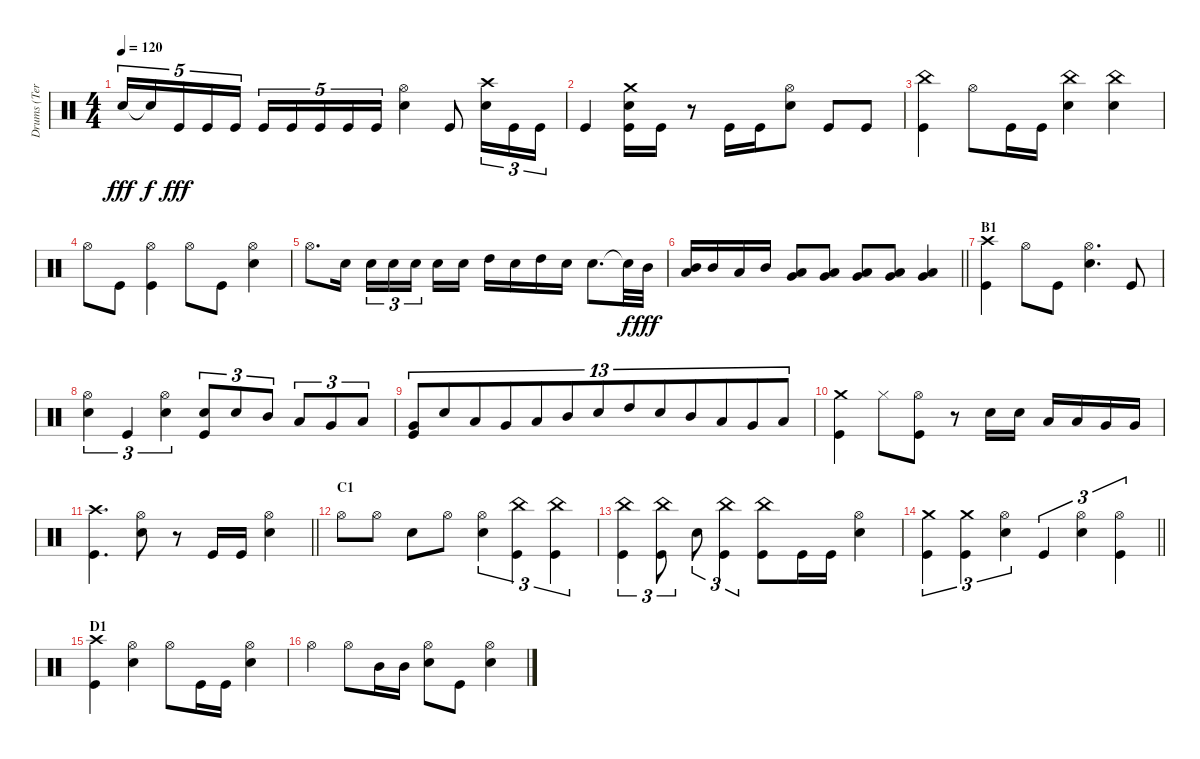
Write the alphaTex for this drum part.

\track ("Drums (Terry Bozzio)" "Drums (Ter") {instrument percussion}
\staff {score}
\articulation defaults
\ts (4 4)
\tempo 120
\clef neutral
\ks c "Snare (hit) 2".16{tu (5 4) dy fff} "Snare (hit)"{t}.16{tu (5 4) dy f} "Kick (hit)".16{tu (5 4) dy fff} "Kick (hit)".16{tu (5 4)} "Kick (hit)".16{tu (5 4)} "Kick (hit)".16{tu (5 4)} "Kick (hit)".16{tu (5 4)} "Kick (hit)".16{tu (5 4)} "Kick (hit)".16{tu (5 4)} "Kick (hit)".16{tu (5 4)}
("Hi-Hat (open)" "Snare (hit) 2").4 "Kick (hit)".8 ("Crash high (hit)" "Snare (hit) 2").16{tu (3 2)} "Kick (hit)".16{tu (3 2)} "Kick (hit)".16{tu (3 2)} |
"Kick (hit)".4 ("Crash medium (hit)" "Snare (hit) 2" "Kick (hit)").16 "Kick (hit)".16 r.8 "Kick (hit)".16 "Kick (hit)".16 ("Hi-Hat (open)" "Snare (hit) 2").8 "Kick (hit)".8 "Kick (hit)".8 |
("China (hit)" "Kick (hit)").4 "Hi-Hat (open)".8 "Kick (hit)".16 "Kick (hit)".16 ("China (hit)" "Snare (hit) 2").4 ("China (hit)" "Snare (hit) 2").4 |
"Hi-Hat (open)".8 "Kick (hit)".8 ("Hi-Hat (open)" "Kick (hit)").4 "Hi-Hat (open)".8 "Kick (hit)".8 ("Hi-Hat (open)" "Snare (hit) 2").4 |
"Hi-Hat (open)".8{d} "Snare (hit) 2".16 "Snare (hit) 2".16{tu (3 2)} "Snare (hit) 2".16{tu (3 2)} "Snare (hit) 2".16{tu (3 2)} "Snare (hit) 2".16 "Snare (hit) 2".16 "High Tom (hit)".16 "Snare (hit) 2".16 "High Tom (hit)".16 "Snare (hit) 2".16 "Snare (hit) 2".8{d} "Snare (hit)"{t}.32{dy f} "Mid Tom (hit)".32{dy fff} |
\barLineRight lightlight
("Mid Tom (hit)" "Low Tom (hit)").16 "Mid Tom (hit)".16 "Low Tom (hit)".16 "Mid Tom (hit)".16 ("Low Tom (hit)" "Very Low Tom (hit)").8 ("Low Tom (hit)" "Very Low Tom (hit)").8 ("Very Low Tom (hit)" "Low Floor Tom (hit)").8 ("Very Low Tom (hit)" "Low Floor Tom (hit)").8 ("Very Low Tom (hit)" "Low Floor Tom (hit)").4 |
\section ("" "B1")
("Crash high (hit)" "Kick (hit)").4 "Hi-Hat (open)".8 "Kick (hit)".8 ("Hi-Hat (open)" "Snare (hit) 2").4{d} "Kick (hit)".8 |
("Hi-Hat (open)" "Snare (hit) 2").4{tu (3 2)} "Kick (hit)".4{tu (3 2)} ("Hi-Hat (open)" "Snare (hit) 2").4{tu (3 2)} ("Snare (hit) 2" "Kick (hit)").8{tu (3 2)} "Snare (hit) 2".8{tu (3 2)} "Mid Tom (hit)".8{tu (3 2)} "Low Tom (hit)".8{tu (3 2)} "Very Low Tom (hit)".8{tu (3 2)} "Low Floor Tom (hit)".8{tu (3 2)} |
("Very Low Tom (hit)" "Kick (hit)").8{tu (13 8)} "Snare (hit) 2".8{tu (13 8)} "Low Floor Tom (hit)".8{tu (13 8)} "Very Low Tom (hit)".8{tu (13 8)} "Low Tom (hit)".8{tu (13 8)} "Mid Tom (hit)".8{tu (13 8)} "Snare (hit) 2".8{tu (13 8)} "High Tom (hit)".8{tu (13 8)} "Snare (hit) 2".8{tu (13 8)} "Mid Tom (hit)".8{tu (13 8)} "Low Tom (hit)".8{tu (13 8)} "Very Low Tom (hit)".8{tu (13 8)} "Low Floor Tom (hit)".8{tu (13 8)} |
("Crash medium (hit)" "Kick (hit)").4 "Hi-Hat (closed)".8 ("Hi-Hat (open)" "Kick (hit)").8 r.8 "Snare (hit) 2".16 "Snare (hit) 2".16 "Low Tom (hit)".16 "Low Tom (hit)".16 "Very Low Tom (hit)".16 "Very Low Tom (hit)".16 |
\barLineRight lightlight
("Crash high (hit)" "Kick (hit)").4{d} ("Hi-Hat (open)" "Snare (hit) 2").8 r.8 "Kick (hit)".16 "Kick (hit)".16 ("Hi-Hat (open)" "Snare (hit) 2").4 |
\section ("" "C1")
"Hi-Hat (open)".8 "Hi-Hat (open)".8 "Snare (hit) 2".8 "Hi-Hat (open)".8 ("Hi-Hat (open)" "Snare (hit) 2").4{tu (3 2)} ("China (hit)" "Kick (hit)").4{tu (3 2)} ("China (hit)" "Kick (hit)").4{tu (3 2)} |
("China (hit)" "Kick (hit)").4{tu (3 2)} ("China (hit)" "Kick (hit)").8{tu (3 2)} "Snare (hit) 2".8{tu (3 2)} ("China (hit)" "Kick (hit)").4{tu (3 2)} ("China (hit)" "Kick (hit)").8 "Kick (hit)".16 "Kick (hit)".16 ("Hi-Hat (open)" "Snare (hit) 2").4 |
\barLineRight lightlight
("Crash medium (hit)" "Kick (hit)").4{tu (3 2)} ("Crash medium (hit)" "Kick (hit)").4{tu (3 2)} ("Hi-Hat (open)" "Snare (hit) 2").4{tu (3 2)} "Kick (hit)".4{tu (3 2)} ("Hi-Hat (open)" "Snare (hit) 2").4{tu (3 2)} ("Hi-Hat (open)" "Kick (hit)").4{tu (3 2)} |
\section ("" "D1")
("Crash high (hit)" "Kick (hit)").4 ("Hi-Hat (open)" "Snare (hit) 2").4 "Hi-Hat (open)".8 "Kick (hit)".16 "Kick (hit)".16 ("Hi-Hat (open)" "Snare (hit) 2").4 |
"Hi-Hat (open)".4 "Hi-Hat (open)".8 "Mid Tom (hit)".16 "Mid Tom (hit)".16 ("Hi-Hat (open)" "Snare (hit) 2").8 "Kick (hit)".8 ("Hi-Hat (open)" "Snare (hit) 2").4
